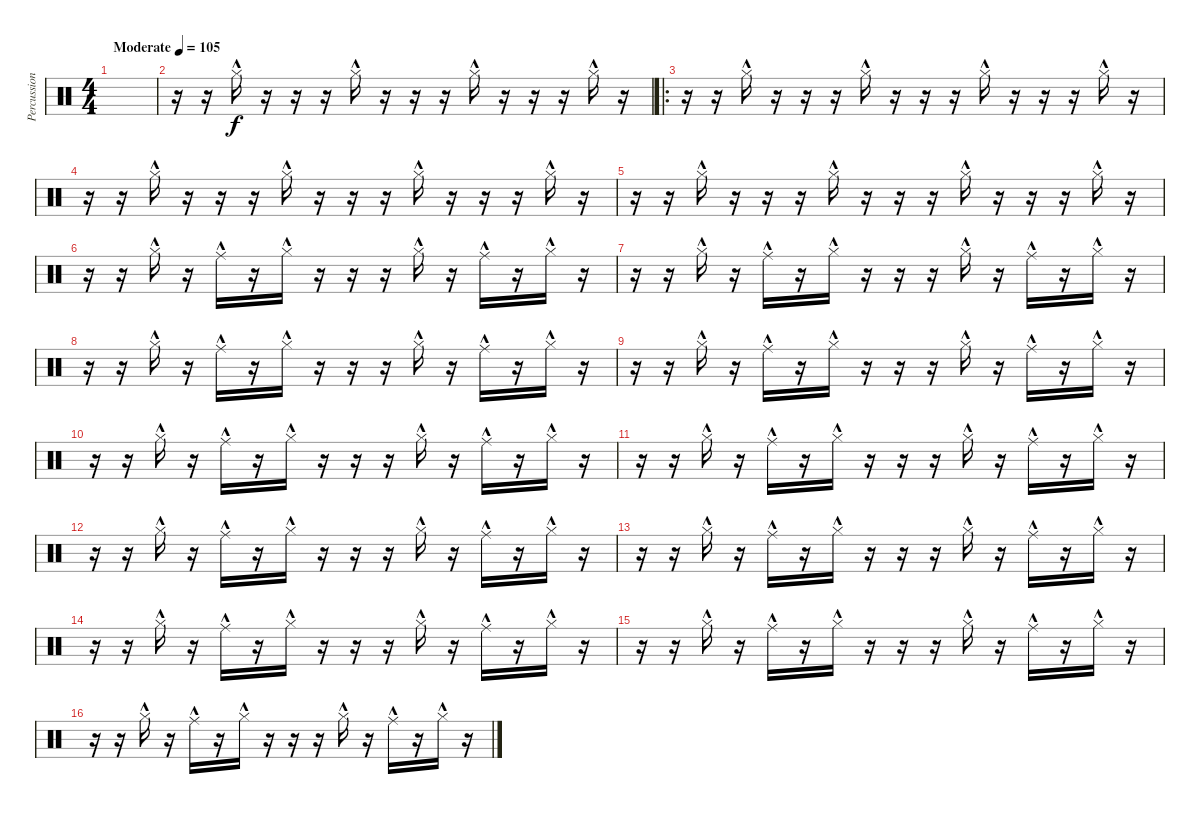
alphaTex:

\track ("Percussion" "Percussion") {instrument percussion}
\staff {score}
\articulation defaults
\ts (4 4)
\tempo (105 "Moderate")
\clef neutral
\ks c
|
r.16 r.16 "Hi-Hat (closed)"{hac}.16 r.16 r.16 r.16 "Hi-Hat (closed)"{hac}.16 r.16 r.16 r.16 "Hi-Hat (closed)"{hac}.16 r.16 r.16 r.16 "Hi-Hat (closed)"{hac}.16 r.16 |
\ro
r.16 r.16 "Hi-Hat (closed)"{hac}.16 r.16 r.16 r.16 "Hi-Hat (closed)"{hac}.16 r.16 r.16 r.16 "Hi-Hat (closed)"{hac}.16 r.16 r.16 r.16 "Hi-Hat (closed)"{hac}.16 r.16 |
r.16 r.16 "Hi-Hat (closed)"{hac}.16 r.16 r.16 r.16 "Hi-Hat (closed)"{hac}.16 r.16 r.16 r.16 "Hi-Hat (closed)"{hac}.16 r.16 r.16 r.16 "Hi-Hat (closed)"{hac}.16 r.16 |
r.16 r.16 "Hi-Hat (closed)"{hac}.16 r.16 r.16 r.16 "Hi-Hat (closed)"{hac}.16 r.16 r.16 r.16 "Hi-Hat (closed)"{hac}.16 r.16 r.16 r.16 "Hi-Hat (closed)"{hac}.16 r.16 |
r.16 r.16 "Hi-Hat (closed)"{hac}.16 r.16 "Ride (middle)"{hac}.16 r.16 "Hi-Hat (closed)"{hac}.16 r.16 r.16 r.16 "Hi-Hat (closed)"{hac}.16 r.16 "Ride (middle)"{hac}.16 r.16 "Hi-Hat (closed)"{hac}.16 r.16 |
r.16 r.16 "Hi-Hat (closed)"{hac}.16 r.16 "Ride (middle)"{hac}.16 r.16 "Hi-Hat (closed)"{hac}.16 r.16 r.16 r.16 "Hi-Hat (closed)"{hac}.16 r.16 "Ride (middle)"{hac}.16 r.16 "Hi-Hat (closed)"{hac}.16 r.16 |
r.16 r.16 "Hi-Hat (closed)"{hac}.16 r.16 "Ride (middle)"{hac}.16 r.16 "Hi-Hat (closed)"{hac}.16 r.16 r.16 r.16 "Hi-Hat (closed)"{hac}.16 r.16 "Ride (middle)"{hac}.16 r.16 "Hi-Hat (closed)"{hac}.16 r.16 |
r.16 r.16 "Hi-Hat (closed)"{hac}.16 r.16 "Ride (middle)"{hac}.16 r.16 "Hi-Hat (closed)"{hac}.16 r.16 r.16 r.16 "Hi-Hat (closed)"{hac}.16 r.16 "Ride (middle)"{hac}.16 r.16 "Hi-Hat (closed)"{hac}.16 r.16 |
r.16 r.16 "Hi-Hat (closed)"{hac}.16 r.16 "Ride (middle)"{hac}.16 r.16 "Hi-Hat (closed)"{hac}.16 r.16 r.16 r.16 "Hi-Hat (closed)"{hac}.16 r.16 "Ride (middle)"{hac}.16 r.16 "Hi-Hat (closed)"{hac}.16 r.16 |
r.16 r.16 "Hi-Hat (closed)"{hac}.16 r.16 "Ride (middle)"{hac}.16 r.16 "Hi-Hat (closed)"{hac}.16 r.16 r.16 r.16 "Hi-Hat (closed)"{hac}.16 r.16 "Ride (middle)"{hac}.16 r.16 "Hi-Hat (closed)"{hac}.16 r.16 |
r.16 r.16 "Hi-Hat (closed)"{hac}.16 r.16 "Ride (middle)"{hac}.16 r.16 "Hi-Hat (closed)"{hac}.16 r.16 r.16 r.16 "Hi-Hat (closed)"{hac}.16 r.16 "Ride (middle)"{hac}.16 r.16 "Hi-Hat (closed)"{hac}.16 r.16 |
r.16 r.16 "Hi-Hat (closed)"{hac}.16 r.16 "Ride (middle)"{hac}.16 r.16 "Hi-Hat (closed)"{hac}.16 r.16 r.16 r.16 "Hi-Hat (closed)"{hac}.16 r.16 "Ride (middle)"{hac}.16 r.16 "Hi-Hat (closed)"{hac}.16 r.16 |
r.16 r.16 "Hi-Hat (closed)"{hac}.16 r.16 "Ride (middle)"{hac}.16 r.16 "Hi-Hat (closed)"{hac}.16 r.16 r.16 r.16 "Hi-Hat (closed)"{hac}.16 r.16 "Ride (middle)"{hac}.16 r.16 "Hi-Hat (closed)"{hac}.16 r.16 |
r.16 r.16 "Hi-Hat (closed)"{hac}.16 r.16 "Ride (middle)"{hac}.16 r.16 "Hi-Hat (closed)"{hac}.16 r.16 r.16 r.16 "Hi-Hat (closed)"{hac}.16 r.16 "Ride (middle)"{hac}.16 r.16 "Hi-Hat (closed)"{hac}.16 r.16 |
r.16 r.16 "Hi-Hat (closed)"{hac}.16 r.16 "Ride (middle)"{hac}.16 r.16 "Hi-Hat (closed)"{hac}.16 r.16 r.16 r.16 "Hi-Hat (closed)"{hac}.16 r.16 "Ride (middle)"{hac}.16 r.16 "Hi-Hat (closed)"{hac}.16 r.16
